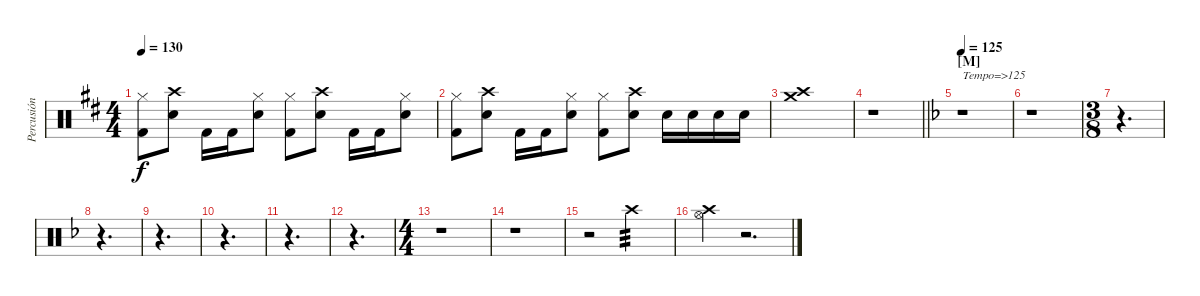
\track ("Percusión" "Percusión") {instrument percussion}
\staff {score}
\articulation defaults
\ts (4 4)
\tempo 130
\clef neutral
\ks d
("Kick (hit) 2" "Hi-Hat (closed)").8{dy f} ("Snare (hit) 2" "Crash high (hit)").8 "Kick (hit) 2".16 "Kick (hit) 2".16 ("Snare (hit) 2" "Hi-Hat (closed)").8 ("Kick (hit) 2" "Hi-Hat (closed)").8 ("Snare (hit) 2" "Crash high (hit)").8 "Kick (hit) 2".16 "Kick (hit) 2".16 ("Snare (hit) 2" "Hi-Hat (closed)").8 |
("Kick (hit) 2" "Hi-Hat (closed)").8 ("Snare (hit) 2" "Crash high (hit)").8 "Kick (hit) 2".16 "Kick (hit) 2".16 ("Snare (hit) 2" "Hi-Hat (closed)").8 ("Kick (hit) 2" "Hi-Hat (closed)").8 ("Snare (hit) 2" "Crash high (hit)").8 "Snare (hit) 2".16 "Snare (hit) 2".16 "Snare (hit) 2".16 "Snare (hit) 2".16 |
("Crash medium (hit)" "Crash high (hit)").1 |
\barLineRight lightlight
r.1 |
\section ("" "[M]")
\tempo 125
\ks f
r.1{txt "Tempo=>125"} |
r.1 |
\ts (3 8)
r.4{d} |
r.4{d} |
r.4{d} |
r.4{d} |
r.4{d} |
r.4{d} |
\ts (4 4)
r.1 |
r.1 |
r.2 "Crash high (hit)".2{tp 3} |
("Hi-Hat (open)" "Crash high (hit)").4 r.2{d}
